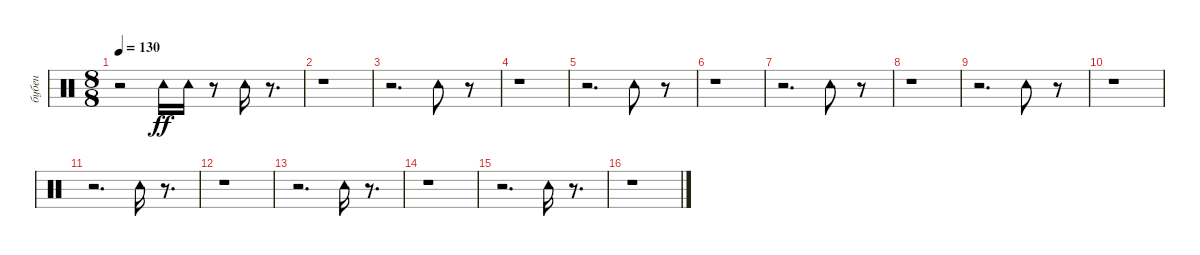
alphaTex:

\track ("бубен" "бубен") {instrument percussion}
\staff {score}
\articulation defaults
\ts (8 8)
\tempo 130
\clef neutral
\ks c
r.2{dy ff} "Tambourine (hit)".16 "Tambourine (hit)".16 r.8 "Tambourine (hit)".16 r.8{d} |
r.1 |
r.2{d} "Tambourine (hit)".8 r.8 |
r.1 |
r.2{d} "Tambourine (hit)".8 r.8 |
r.1 |
r.2{d} "Tambourine (hit)".8 r.8 |
r.1 |
r.2{d} "Tambourine (hit)".8 r.8 |
r.1 |
r.2{d} "Tambourine (hit)".16 r.8{d} |
r.1 |
r.2{d} "Tambourine (hit)".16 r.8{d} |
r.1 |
r.2{d} "Tambourine (hit)".16 r.8{d} |
r.1
